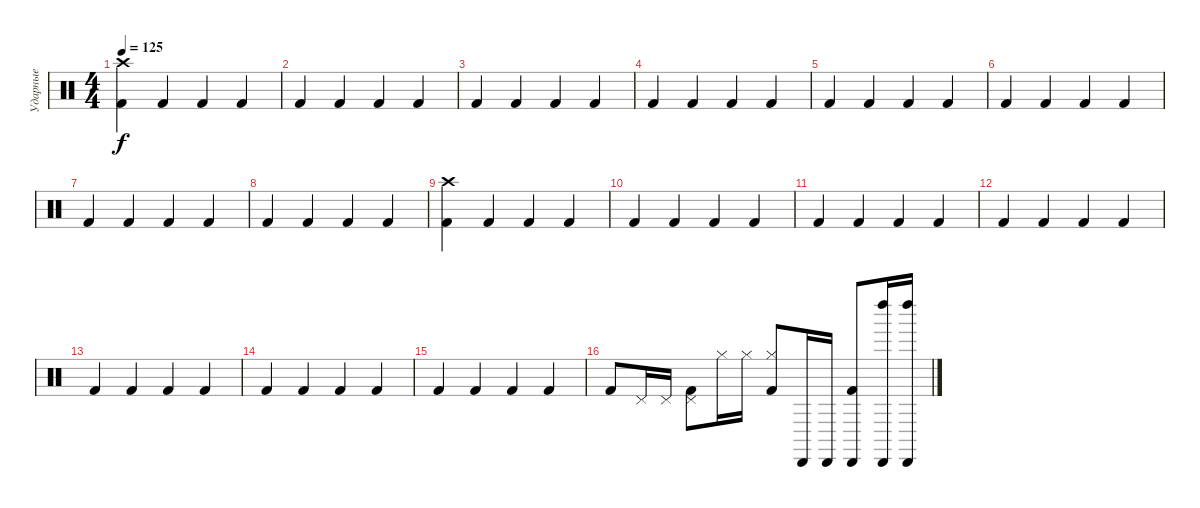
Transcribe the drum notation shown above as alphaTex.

\track ("Ударные" "Ударные") {instrument percussion}
\staff {score}
\articulation defaults
\ts (4 4)
\tempo 125
\clef neutral
\ks c
("Crash high (hit)" "Kick (hit) 2").4{dy f} "Kick (hit) 2".4 "Kick (hit) 2".4 "Kick (hit) 2".4 |
"Kick (hit) 2".4 "Kick (hit) 2".4 "Kick (hit) 2".4 "Kick (hit) 2".4 |
"Kick (hit) 2".4 "Kick (hit) 2".4 "Kick (hit) 2".4 "Kick (hit) 2".4 |
"Kick (hit) 2".4 "Kick (hit) 2".4 "Kick (hit) 2".4 "Kick (hit) 2".4 |
"Kick (hit) 2".4 "Kick (hit) 2".4 "Kick (hit) 2".4 "Kick (hit) 2".4 |
"Kick (hit) 2".4 "Kick (hit) 2".4 "Kick (hit) 2".4 "Kick (hit) 2".4 |
"Kick (hit) 2".4 "Kick (hit) 2".4 "Kick (hit) 2".4 "Kick (hit) 2".4 |
"Kick (hit) 2".4 "Kick (hit) 2".4 "Kick (hit) 2".4 "Kick (hit) 2".4 |
("Crash high (hit)" "Kick (hit) 2").4 "Kick (hit) 2".4 "Kick (hit) 2".4 "Kick (hit) 2".4 |
"Kick (hit) 2".4 "Kick (hit) 2".4 "Kick (hit) 2".4 "Kick (hit) 2".4 |
"Kick (hit) 2".4 "Kick (hit) 2".4 "Kick (hit) 2".4 "Kick (hit) 2".4 |
"Kick (hit) 2".4 "Kick (hit) 2".4 "Kick (hit) 2".4 "Kick (hit) 2".4 |
"Kick (hit) 2".4 "Kick (hit) 2".4 "Kick (hit) 2".4 "Kick (hit) 2".4 |
"Kick (hit) 2".4 "Kick (hit) 2".4 "Kick (hit) 2".4 "Kick (hit) 2".4 |
"Kick (hit) 2".4 "Kick (hit) 2".4 "Kick (hit) 2".4 "Kick (hit) 2".4 |
"Kick (hit) 2".8 "Pedal Hi-Hat (hit)".16 "Pedal Hi-Hat (hit)".16 ("Pedal Hi-Hat (hit)" "Kick (hit) 2").8 "Hi-Hat (closed)".16 "Hi-Hat (closed)".16 ("Hi-Hat (closed)" "Kick (hit) 2").8 "Cabasa (hit)".16 "Cabasa (hit)".16 ("Cabasa (hit)" "Kick (hit) 2").8 ("Cabasa (hit)" "Left Maraca (hit)").16 ("Cabasa (hit)" "Left Maraca (hit)").16
